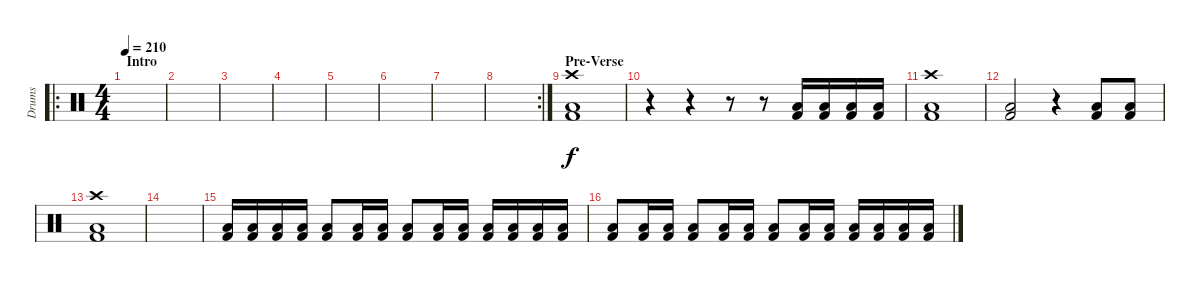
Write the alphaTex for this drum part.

\track ("Drums" "Drums") {instrument percussion}
\staff {score}
\articulation defaults
\ro
\ts (4 4)
\section ("" "Intro")
\tempo 210
\clef neutral
\ks c
|
|
|
|
|
|
|
\rc 2
|
\section ("" "Pre-Verse")
("Crash high (hit)" "Low Floor Tom (hit)" "Kick (hit) 2").1 |
r.4 r.4 r.8 r.8 ("Low Floor Tom (hit)" "Kick (hit) 2").16 ("Low Floor Tom (hit)" "Kick (hit) 2").16 ("Low Floor Tom (hit)" "Kick (hit) 2").16 ("Low Floor Tom (hit)" "Kick (hit) 2").16 |
("Crash high (hit)" "Low Floor Tom (hit)" "Kick (hit) 2").1 |
("Low Floor Tom (hit)" "Kick (hit) 2").2 r.4 ("Low Floor Tom (hit)" "Kick (hit) 2").8 ("Low Floor Tom (hit)" "Kick (hit) 2").8 |
("Crash high (hit)" "Low Floor Tom (hit)" "Kick (hit) 2").1 |
|
("Low Floor Tom (hit)" "Kick (hit) 2").16 ("Low Floor Tom (hit)" "Kick (hit) 2").16 ("Low Floor Tom (hit)" "Kick (hit) 2").16 ("Low Floor Tom (hit)" "Kick (hit) 2").16 ("Low Floor Tom (hit)" "Kick (hit) 2").8 ("Low Floor Tom (hit)" "Kick (hit) 2").16 ("Low Floor Tom (hit)" "Kick (hit) 2").16 ("Low Floor Tom (hit)" "Kick (hit) 2").8 ("Low Floor Tom (hit)" "Kick (hit) 2").16 ("Low Floor Tom (hit)" "Kick (hit) 2").16 ("Low Floor Tom (hit)" "Kick (hit) 2").16 ("Low Floor Tom (hit)" "Kick (hit) 2").16 ("Low Floor Tom (hit)" "Kick (hit) 2").16 ("Low Floor Tom (hit)" "Kick (hit) 2").16 |
("Low Floor Tom (hit)" "Kick (hit) 2").8 ("Low Floor Tom (hit)" "Kick (hit) 2").16 ("Low Floor Tom (hit)" "Kick (hit) 2").16 ("Low Floor Tom (hit)" "Kick (hit) 2").8 ("Low Floor Tom (hit)" "Kick (hit) 2").16 ("Low Floor Tom (hit)" "Kick (hit) 2").16 ("Low Floor Tom (hit)" "Kick (hit) 2").8 ("Low Floor Tom (hit)" "Kick (hit) 2").16 ("Low Floor Tom (hit)" "Kick (hit) 2").16 ("Low Floor Tom (hit)" "Kick (hit) 2").16 ("Low Floor Tom (hit)" "Kick (hit) 2").16 ("Low Floor Tom (hit)" "Kick (hit) 2").16 ("Low Floor Tom (hit)" "Kick (hit) 2").16
